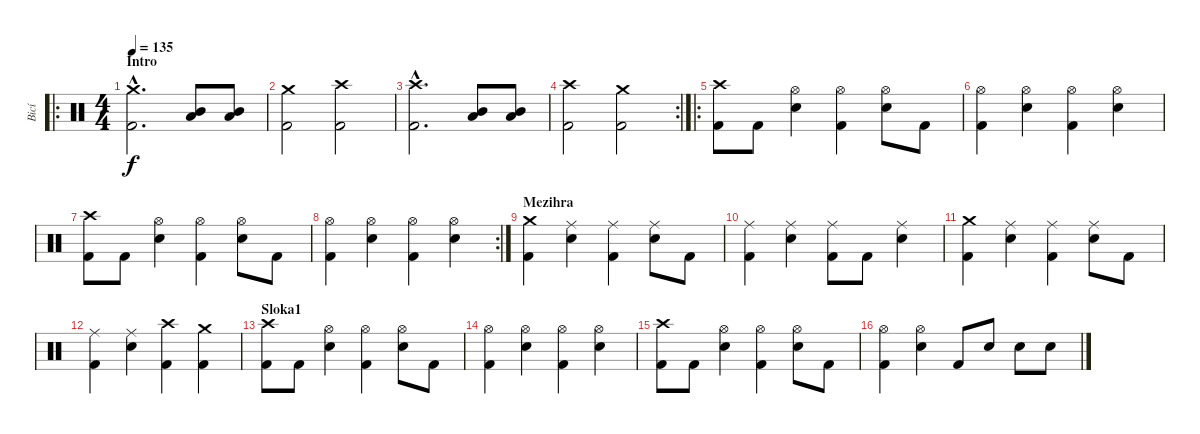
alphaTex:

\track ("Bicí" "Bicí") {instrument percussion}
\staff {score}
\articulation defaults
\ro
\ts (4 4)
\section ("" "Intro")
\tempo 135
\clef neutral
\ks c
("Crash medium (hit)"{hac} "Kick (hit) 2"{hac}).2{d dy f} ("Mid Tom (hit)" "Low Tom (hit)").8 ("Mid Tom (hit)" "Low Tom (hit)").8 |
("Crash medium (hit)" "Kick (hit) 2").2 ("Crash high (hit)" "Kick (hit) 2").2 |
("Crash high (hit)"{hac} "Kick (hit) 2"{hac}).2{d} ("Mid Tom (hit)" "Low Tom (hit)").8 ("Mid Tom (hit)" "Low Tom (hit)").8 |
\rc 2
("Crash high (hit)" "Kick (hit) 2").2 ("Crash medium (hit)" "Kick (hit) 2").2 |
\ro
("Crash high (hit)" "Kick (hit) 2").8 "Kick (hit) 2".8 ("Hi-Hat (open)" "Snare (hit) 2").4 ("Hi-Hat (open)" "Kick (hit) 2").4 ("Hi-Hat (open)" "Snare (hit) 2").8 "Kick (hit) 2".8 |
("Hi-Hat (open)" "Kick (hit) 2").4 ("Hi-Hat (open)" "Snare (hit) 2").4 ("Hi-Hat (open)" "Kick (hit) 2").4 ("Hi-Hat (open)" "Snare (hit) 2").4 |
("Crash high (hit)" "Kick (hit) 2").8 "Kick (hit) 2".8 ("Hi-Hat (open)" "Snare (hit) 2").4 ("Hi-Hat (open)" "Kick (hit) 2").4 ("Hi-Hat (open)" "Snare (hit) 2").8 "Kick (hit) 2".8 |
\rc 2
("Hi-Hat (open)" "Kick (hit) 2").4 ("Hi-Hat (open)" "Snare (hit) 2").4 ("Hi-Hat (open)" "Kick (hit) 2").4 ("Hi-Hat (open)" "Snare (hit) 2").4 |
\section ("" "Mezihra")
("Crash medium (hit)" "Kick (hit) 2").4 ("Ride (middle)" "Snare (hit) 2").4 ("Ride (middle)" "Kick (hit) 2").4 ("Ride (middle)" "Snare (hit) 2").8 "Kick (hit) 2".8 |
("Ride (middle)" "Kick (hit) 2").4 ("Ride (middle)" "Snare (hit) 2").4 ("Ride (middle)" "Kick (hit) 2").8 "Kick (hit) 2".8 ("Ride (middle)" "Snare (hit) 2").4 |
("Crash medium (hit)" "Kick (hit) 2").4 ("Ride (middle)" "Snare (hit) 2").4 ("Ride (middle)" "Kick (hit) 2").4 ("Ride (middle)" "Snare (hit) 2").8 "Kick (hit) 2".8 |
("Ride (middle)" "Kick (hit) 2").4 ("Ride (middle)" "Snare (hit) 2").4 ("Crash high (hit)" "Kick (hit) 2").4 ("Crash medium (hit)" "Kick (hit) 2").4 |
\section ("" "Sloka1")
("Crash high (hit)" "Kick (hit) 2").8 "Kick (hit) 2".8 ("Hi-Hat (open)" "Snare (hit) 2").4 ("Hi-Hat (open)" "Kick (hit) 2").4 ("Hi-Hat (open)" "Snare (hit) 2").8 "Kick (hit) 2".8 |
("Hi-Hat (open)" "Kick (hit) 2").4 ("Hi-Hat (open)" "Snare (hit) 2").4 ("Hi-Hat (open)" "Kick (hit) 2").4 ("Hi-Hat (open)" "Snare (hit) 2").4 |
("Crash high (hit)" "Kick (hit) 2").8 "Kick (hit) 2".8 ("Hi-Hat (open)" "Snare (hit) 2").4 ("Hi-Hat (open)" "Kick (hit) 2").4 ("Hi-Hat (open)" "Snare (hit) 2").8 "Kick (hit) 2".8 |
("Hi-Hat (open)" "Kick (hit) 2").4 ("Hi-Hat (open)" "Snare (hit) 2").4 "Kick (hit) 2".8 "Snare (hit) 2".8 "Snare (hit) 2".8 "Snare (hit) 2".8
